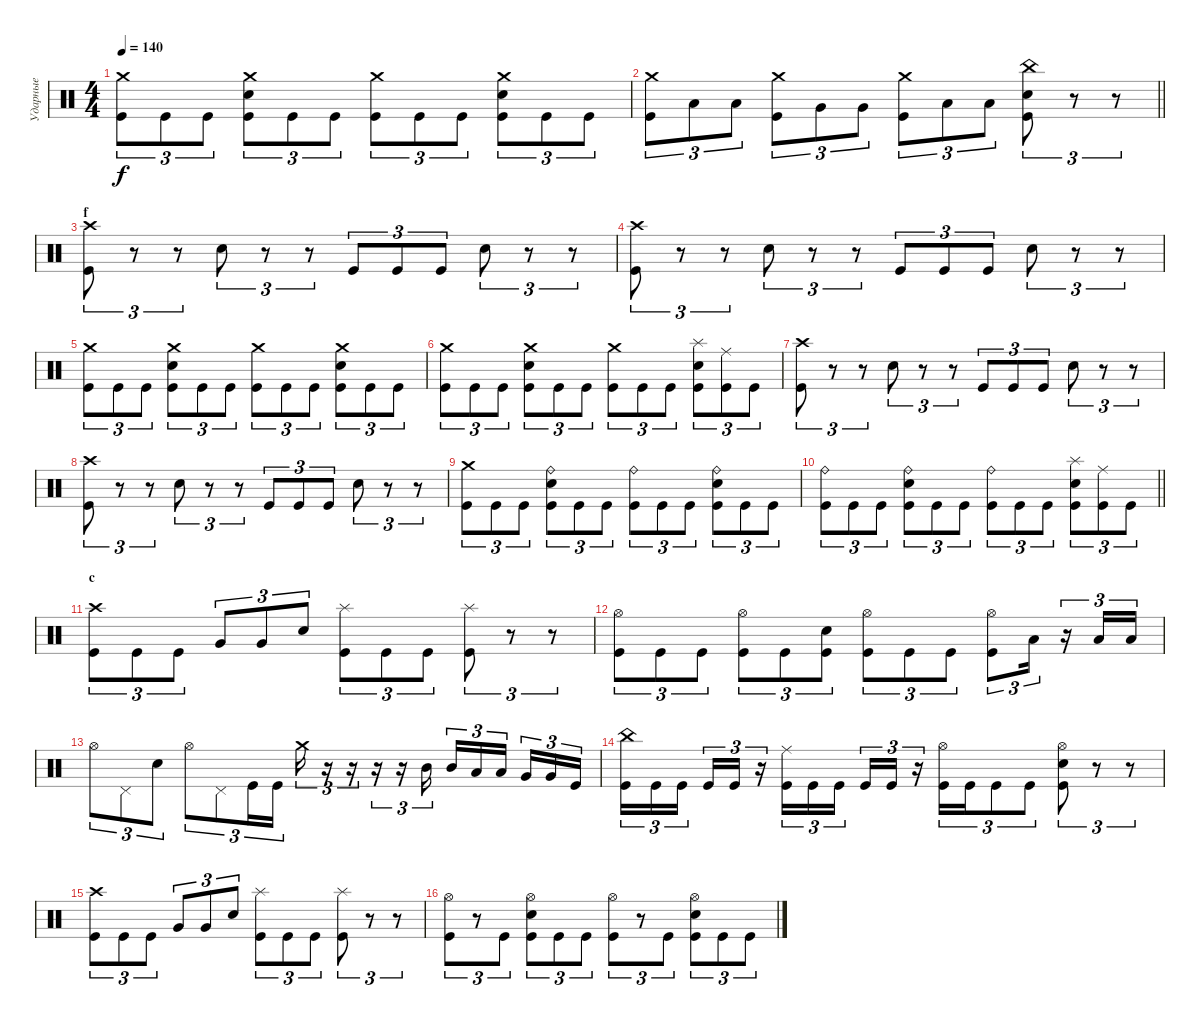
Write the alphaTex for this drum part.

\track ("Ударные" "Ударные") {instrument percussion}
\staff {score}
\articulation defaults
\ts (4 4)
\tempo 140
\clef neutral
\ks c
("Crash medium (hit)" "Kick (hit)").8{tu (3 2) dy f} "Kick (hit)".8{tu (3 2)} "Kick (hit)".8{tu (3 2)} ("Crash medium (hit)" "Electric Snare (hit)" "Kick (hit)").8{tu (3 2)} "Kick (hit)".8{tu (3 2)} "Kick (hit)".8{tu (3 2)} ("Crash medium (hit)" "Kick (hit)").8{tu (3 2)} "Kick (hit)".8{tu (3 2)} "Kick (hit)".8{tu (3 2)} ("Crash medium (hit)" "Electric Snare (hit)" "Kick (hit)").8{tu (3 2)} "Kick (hit)".8{tu (3 2)} "Kick (hit)".8{tu (3 2)} |
\barLineRight lightlight
("Crash medium (hit)" "Kick (hit)").8{tu (3 2)} "Low Tom (hit)".8{tu (3 2)} "Low Tom (hit)".8{tu (3 2)} ("Crash medium (hit)" "Kick (hit)").8{tu (3 2)} "Very Low Tom (hit)".8{tu (3 2)} "Very Low Tom (hit)".8{tu (3 2)} ("Crash medium (hit)" "Kick (hit)").8{tu (3 2)} "Low Tom (hit)".8{tu (3 2)} "Low Tom (hit)".8{tu (3 2)} ("China (hit)" "Electric Snare (hit)" "Kick (hit)").8{tu (3 2)} r.8{tu (3 2)} r.8{tu (3 2)} |
\section ("" "f")
("Crash high (hit)" "Kick (hit)").8{tu (3 2)} r.8{tu (3 2)} r.8{tu (3 2)} "Electric Snare (hit)".8{tu (3 2)} r.8{tu (3 2)} r.8{tu (3 2)} "Kick (hit)".8{tu (3 2)} "Kick (hit)".8{tu (3 2)} "Kick (hit)".8{tu (3 2)} "Electric Snare (hit)".8{tu (3 2)} r.8{tu (3 2)} r.8{tu (3 2)} |
("Crash high (hit)" "Kick (hit)").8{tu (3 2)} r.8{tu (3 2)} r.8{tu (3 2)} "Electric Snare (hit)".8{tu (3 2)} r.8{tu (3 2)} r.8{tu (3 2)} "Kick (hit)".8{tu (3 2)} "Kick (hit)".8{tu (3 2)} "Kick (hit)".8{tu (3 2)} "Electric Snare (hit)".8{tu (3 2)} r.8{tu (3 2)} r.8{tu (3 2)} |
("Crash medium (hit)" "Kick (hit)").8{tu (3 2)} "Kick (hit)".8{tu (3 2)} "Kick (hit)".8{tu (3 2)} ("Crash medium (hit)" "Electric Snare (hit)" "Kick (hit)").8{tu (3 2)} "Kick (hit)".8{tu (3 2)} "Kick (hit)".8{tu (3 2)} ("Crash medium (hit)" "Kick (hit)").8{tu (3 2)} "Kick (hit)".8{tu (3 2)} "Kick (hit)".8{tu (3 2)} ("Crash medium (hit)" "Electric Snare (hit)" "Kick (hit)").8{tu (3 2)} "Kick (hit)".8{tu (3 2)} "Kick (hit)".8{tu (3 2)} |
("Crash medium (hit)" "Kick (hit)").8{tu (3 2)} "Kick (hit)".8{tu (3 2)} "Kick (hit)".8{tu (3 2)} ("Crash medium (hit)" "Electric Snare (hit)" "Kick (hit)").8{tu (3 2)} "Kick (hit)".8{tu (3 2)} "Kick (hit)".8{tu (3 2)} ("Crash medium (hit)" "Kick (hit)").8{tu (3 2)} "Kick (hit)".8{tu (3 2)} "Kick (hit)".8{tu (3 2)} ("Splash (hit)" "Electric Snare (hit)" "Kick (hit)").8{tu (3 2)} ("Ride (middle)" "Kick (hit)").8{tu (3 2)} "Kick (hit)".8{tu (3 2)} |
("Crash high (hit)" "Kick (hit)").8{tu (3 2)} r.8{tu (3 2)} r.8{tu (3 2)} "Electric Snare (hit)".8{tu (3 2)} r.8{tu (3 2)} r.8{tu (3 2)} "Kick (hit)".8{tu (3 2)} "Kick (hit)".8{tu (3 2)} "Kick (hit)".8{tu (3 2)} "Electric Snare (hit)".8{tu (3 2)} r.8{tu (3 2)} r.8{tu (3 2)} |
("Crash high (hit)" "Kick (hit)").8{tu (3 2)} r.8{tu (3 2)} r.8{tu (3 2)} "Electric Snare (hit)".8{tu (3 2)} r.8{tu (3 2)} r.8{tu (3 2)} "Kick (hit)".8{tu (3 2)} "Kick (hit)".8{tu (3 2)} "Kick (hit)".8{tu (3 2)} "Electric Snare (hit)".8{tu (3 2)} r.8{tu (3 2)} r.8{tu (3 2)} |
("Crash medium (hit)" "Kick (hit)").8{tu (3 2)} "Kick (hit)".8{tu (3 2)} "Kick (hit)".8{tu (3 2)} ("Ride (bell)" "Electric Snare (hit)" "Kick (hit)").8{tu (3 2)} "Kick (hit)".8{tu (3 2)} "Kick (hit)".8{tu (3 2)} ("Ride (bell)" "Kick (hit)").8{tu (3 2)} "Kick (hit)".8{tu (3 2)} "Kick (hit)".8{tu (3 2)} ("Ride (bell)" "Electric Snare (hit)" "Kick (hit)").8{tu (3 2)} "Kick (hit)".8{tu (3 2)} "Kick (hit)".8{tu (3 2)} |
\barLineRight lightlight
("Ride (bell)" "Kick (hit)").8{tu (3 2)} "Kick (hit)".8{tu (3 2)} "Kick (hit)".8{tu (3 2)} ("Ride (bell)" "Electric Snare (hit)" "Kick (hit)").8{tu (3 2)} "Kick (hit)".8{tu (3 2)} "Kick (hit)".8{tu (3 2)} ("Ride (bell)" "Kick (hit)").8{tu (3 2)} "Kick (hit)".8{tu (3 2)} "Kick (hit)".8{tu (3 2)} ("Splash (hit)" "Electric Snare (hit)" "Kick (hit)").8{tu (3 2)} ("Ride (middle)" "Kick (hit)").8{tu (3 2)} "Kick (hit)".8{tu (3 2)} |
\section ("" "c")
("Crash high (hit)" "Kick (hit)").8{tu (3 2)} "Kick (hit)".8{tu (3 2)} "Kick (hit)".8{tu (3 2)} "Very Low Tom (hit)".8{tu (3 2)} "Very Low Tom (hit)".8{tu (3 2)} "Electric Snare (hit)".8{tu (3 2)} ("Splash (hit)" "Kick (hit)").8{tu (3 2)} "Kick (hit)".8{tu (3 2)} "Kick (hit)".8{tu (3 2)} ("Splash (hit)" "Kick (hit)").8{tu (3 2)} r.8{tu (3 2)} r.8{tu (3 2)} |
("Hi-Hat (open)" "Kick (hit)").8{tu (3 2)} "Kick (hit)".8{tu (3 2)} "Kick (hit)".8{tu (3 2)} ("Hi-Hat (open)" "Kick (hit)").8{tu (3 2)} "Kick (hit)".8{tu (3 2)} ("Electric Snare (hit)" "Kick (hit)").8{tu (3 2)} ("Hi-Hat (open)" "Kick (hit)").8{tu (3 2)} "Kick (hit)".8{tu (3 2)} "Kick (hit)".8{tu (3 2)} ("Hi-Hat (open)" "Kick (hit)").8{tu (3 2)} "Low Floor Tom (hit)".16{tu (3 2)} r.16{tu (3 2)} "Low Floor Tom (hit)".16{tu (3 2)} "Low Floor Tom (hit)".16{tu (3 2)} |
"Hi-Hat (open)".8{tu (3 2)} "Pedal Hi-Hat (hit)".8{tu (3 2)} "Electric Snare (hit)".8{tu (3 2)} "Hi-Hat (open)".8{tu (3 2)} "Pedal Hi-Hat (hit)".8{tu (3 2)} "Kick (hit)".16{tu (3 2)} "Kick (hit)".16{tu (3 2)} "Crash medium (hit)".16{tu (3 2)} r.16{tu (3 2)} r.16{tu (3 2)} r.16{tu (3 2)} r.16{tu (3 2)} "Mid Tom (hit)".16{tu (3 2)} "Mid Tom (hit)".16{tu (3 2)} "Low Tom (hit)".16{tu (3 2)} "Low Tom (hit)".16{tu (3 2) beam splitsecondary} "Very Low Tom (hit)".16{tu (3 2)} "Very Low Tom (hit)".16{tu (3 2)} "Kick (hit)".16{tu (3 2)} |
("China (hit)" "Kick (hit)").16{tu (3 2)} "Kick (hit)".16{tu (3 2)} "Kick (hit)".16{tu (3 2) beam splitsecondary} "Kick (hit)".16{tu (3 2)} "Kick (hit)".16{tu (3 2)} r.16{tu (3 2)} ("Ride (middle)" "Kick (hit)").16{tu (3 2)} "Kick (hit)".16{tu (3 2)} "Kick (hit)".16{tu (3 2) beam splitsecondary} "Kick (hit)".16{tu (3 2)} "Kick (hit)".16{tu (3 2)} r.16{tu (3 2)} ("Hi-Hat (open)" "Kick (hit)").16{tu (3 2)} "Kick (hit)".16{tu (3 2)} "Kick (hit)".8{tu (3 2)} "Kick (hit)".8{tu (3 2)} ("Hi-Hat (open)" "Electric Snare (hit)" "Kick (hit)").8{tu (3 2)} r.8{tu (3 2)} r.8{tu (3 2)} |
("Crash high (hit)" "Kick (hit)").8{tu (3 2)} "Kick (hit)".8{tu (3 2)} "Kick (hit)".8{tu (3 2)} "Very Low Tom (hit)".8{tu (3 2)} "Very Low Tom (hit)".8{tu (3 2)} "Electric Snare (hit)".8{tu (3 2)} ("Splash (hit)" "Kick (hit)").8{tu (3 2)} "Kick (hit)".8{tu (3 2)} "Kick (hit)".8{tu (3 2)} ("Splash (hit)" "Kick (hit)").8{tu (3 2)} r.8{tu (3 2)} r.8{tu (3 2)} |
("Hi-Hat (open)" "Kick (hit)").8{tu (3 2)} r.8{tu (3 2)} "Kick (hit)".8{tu (3 2)} ("Hi-Hat (open)" "Electric Snare (hit)" "Kick (hit)").8{tu (3 2)} "Kick (hit)".8{tu (3 2)} "Kick (hit)".8{tu (3 2)} ("Hi-Hat (open)" "Kick (hit)").8{tu (3 2)} r.8{tu (3 2)} "Kick (hit)".8{tu (3 2)} ("Hi-Hat (open)" "Electric Snare (hit)" "Kick (hit)").8{tu (3 2)} "Kick (hit)".8{tu (3 2)} "Kick (hit)".8{tu (3 2)}
